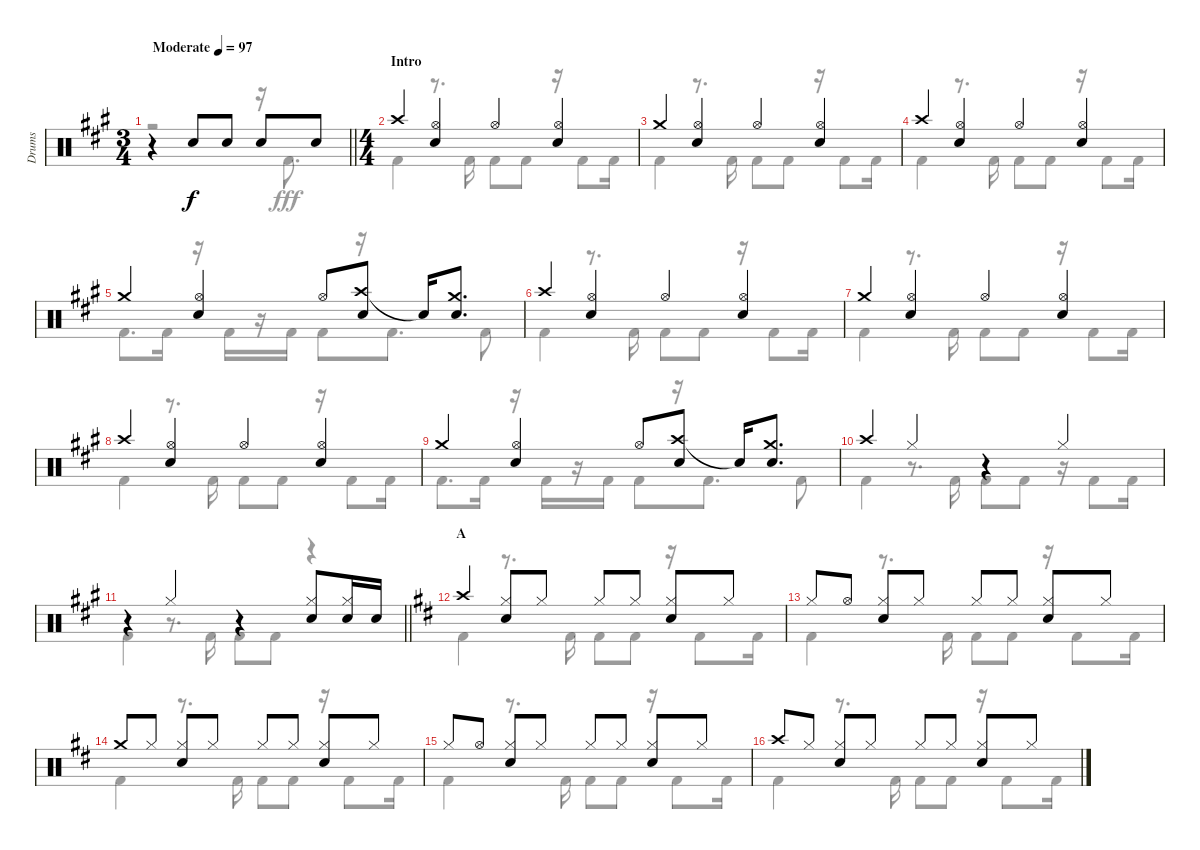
\track ("Drums" "Drums") {instrument percussion}
\staff {score}
\articulation defaults
\voice
\ts (3 4)
\tempo (97 "Moderate")
\clef neutral
\barLineRight lightlight
\ks a
r.4{dy f} "Snare (hit) 2".8 "Snare (hit) 2".8 "Snare (hit) 2".8 "Snare (hit) 2".8 |
\ts (4 4)
\section ("" "Intro")
"Crash high (hit)".4 ("Hi-Hat (open)" "Snare (hit) 2").4 "Hi-Hat (open)".4 ("Hi-Hat (open)" "Snare (hit) 2").4 |
"Crash medium (hit)".4 ("Hi-Hat (open)" "Snare (hit) 2").4 "Hi-Hat (open)".4 ("Hi-Hat (open)" "Snare (hit) 2").4 |
"Crash high (hit)".4 ("Hi-Hat (open)" "Snare (hit) 2").4 "Hi-Hat (open)".4 ("Hi-Hat (open)" "Snare (hit) 2").4 |
"Crash medium (hit)".4 ("Hi-Hat (open)" "Snare (hit) 2").4 "Hi-Hat (open)".8 ("Crash high (hit)" "Snare (hit) 2").8 "Snare (hit)"{t}.16 ("Crash medium (hit)" "Snare (hit) 2").8{d} |
"Crash high (hit)".4 ("Hi-Hat (open)" "Snare (hit) 2").4 "Hi-Hat (open)".4 ("Hi-Hat (open)" "Snare (hit) 2").4 |
"Crash medium (hit)".4 ("Hi-Hat (open)" "Snare (hit) 2").4 "Hi-Hat (open)".4 ("Hi-Hat (open)" "Snare (hit) 2").4 |
"Crash high (hit)".4 ("Hi-Hat (open)" "Snare (hit) 2").4 "Hi-Hat (open)".4 ("Hi-Hat (open)" "Snare (hit) 2").4 |
"Crash medium (hit)".4 ("Hi-Hat (open)" "Snare (hit) 2").4 "Hi-Hat (open)".8 ("Crash high (hit)" "Snare (hit) 2").8 "Snare (hit)"{t}.16 ("Crash medium (hit)" "Snare (hit) 2").8{d} |
"Crash high (hit)".4 "Hi-Hat (closed)".4 r.4 "Hi-Hat (closed)".4 |
\barLineRight lightlight
r.4 "Hi-Hat (closed)".4 r.4 ("Hi-Hat (closed)" "Snare (hit) 2").8 ("Hi-Hat (closed)" "Snare (hit) 2").16 "Snare (hit) 2".16 |
\section ("" "A")
\ks d "Crash high (hit)".4
("Hi-Hat (closed)" "Snare (hit) 2").8 "Hi-Hat (closed)".8 "Hi-Hat (closed)".8 "Hi-Hat (closed)".8 ("Hi-Hat (closed)" "Snare (hit) 2").8 "Hi-Hat (closed)".8 |
"Hi-Hat (closed)".8 "Hi-Hat (open)".8 ("Hi-Hat (closed)" "Snare (hit) 2").8 "Hi-Hat (closed)".8 "Hi-Hat (closed)".8 "Hi-Hat (closed)".8 ("Hi-Hat (closed)" "Snare (hit) 2").8 "Hi-Hat (closed)".8 |
"Crash medium (hit)".8 "Hi-Hat (closed)".8 ("Hi-Hat (closed)" "Snare (hit) 2").8 "Hi-Hat (closed)".8 "Hi-Hat (closed)".8 "Hi-Hat (closed)".8 ("Hi-Hat (closed)" "Snare (hit) 2").8 "Hi-Hat (closed)".8 |
"Hi-Hat (closed)".8 "Hi-Hat (open)".8 ("Hi-Hat (closed)" "Snare (hit) 2").8 "Hi-Hat (closed)".8 "Hi-Hat (closed)".8 "Hi-Hat (closed)".8 ("Hi-Hat (closed)" "Snare (hit) 2").8 "Hi-Hat (closed)".8 |
"Crash high (hit)".8 "Hi-Hat (closed)".8 ("Hi-Hat (closed)" "Snare (hit) 2").8 "Hi-Hat (closed)".8 "Hi-Hat (closed)".8 "Hi-Hat (closed)".8 ("Hi-Hat (closed)" "Snare (hit) 2").8 "Hi-Hat (closed)".8
\voice
\clef neutral
\ottava regular
\simile none
\barLineRight lightlight
\ks a
r.2{dy fff} r.16 "Kick (hit) 2".8{d} |
"Kick (hit) 2".4 r.8{d} "Kick (hit) 2".16 "Kick (hit) 2".8 "Kick (hit) 2".8 r.16 "Kick (hit) 2".8 "Kick (hit) 2".16 |
"Kick (hit) 2".4 r.8{d} "Kick (hit) 2".16 "Kick (hit) 2".8 "Kick (hit) 2".8 r.16 "Kick (hit) 2".8 "Kick (hit) 2".16 |
"Kick (hit) 2".4 r.8{d} "Kick (hit) 2".16 "Kick (hit) 2".8 "Kick (hit) 2".8 r.16 "Kick (hit) 2".8 "Kick (hit) 2".16 |
"Kick (hit) 2".8{d} "Kick (hit) 2".16 r.16 "Kick (hit) 2".16 r.16 "Kick (hit) 2".16 "Kick (hit) 2".8 r.16 "Kick (hit) 2".8{d} "Kick (hit) 2".8 |
"Kick (hit) 2".4 r.8{d} "Kick (hit) 2".16 "Kick (hit) 2".8 "Kick (hit) 2".8 r.16 "Kick (hit) 2".8 "Kick (hit) 2".16 |
"Kick (hit) 2".4 r.8{d} "Kick (hit) 2".16 "Kick (hit) 2".8 "Kick (hit) 2".8 r.16 "Kick (hit) 2".8 "Kick (hit) 2".16 |
"Kick (hit) 2".4 r.8{d} "Kick (hit) 2".16 "Kick (hit) 2".8 "Kick (hit) 2".8 r.16 "Kick (hit) 2".8 "Kick (hit) 2".16 |
"Kick (hit) 2".8{d} "Kick (hit) 2".16 r.16 "Kick (hit) 2".16 r.16 "Kick (hit) 2".16 "Kick (hit) 2".8 r.16 "Kick (hit) 2".8{d} "Kick (hit) 2".8 |
"Kick (hit) 2".4 r.8{d} "Kick (hit) 2".16 "Kick (hit) 2".8 "Kick (hit) 2".8 r.16 "Kick (hit) 2".8 "Kick (hit) 2".16 |
\barLineRight lightlight "Kick (hit) 2".4
r.8{d} "Kick (hit) 2".16 "Kick (hit) 2".8 "Kick (hit) 2".8 r.4 |
\ks d "Kick (hit) 2".4
r.8{d} "Kick (hit) 2".16 "Kick (hit) 2".8 "Kick (hit) 2".8 r.16 "Kick (hit) 2".8 "Kick (hit) 2".16 |
"Kick (hit) 2".4 r.8{d} "Kick (hit) 2".16 "Kick (hit) 2".8 "Kick (hit) 2".8 r.16 "Kick (hit) 2".8 "Kick (hit) 2".16 |
"Kick (hit) 2".4 r.8{d} "Kick (hit) 2".16 "Kick (hit) 2".8 "Kick (hit) 2".8 r.16 "Kick (hit) 2".8 "Kick (hit) 2".16 |
"Kick (hit) 2".4 r.8{d} "Kick (hit) 2".16 "Kick (hit) 2".8 "Kick (hit) 2".8 r.16 "Kick (hit) 2".8 "Kick (hit) 2".16 |
"Kick (hit) 2".4 r.8{d} "Kick (hit) 2".16 "Kick (hit) 2".8 "Kick (hit) 2".8 r.16 "Kick (hit) 2".8 "Kick (hit) 2".16
